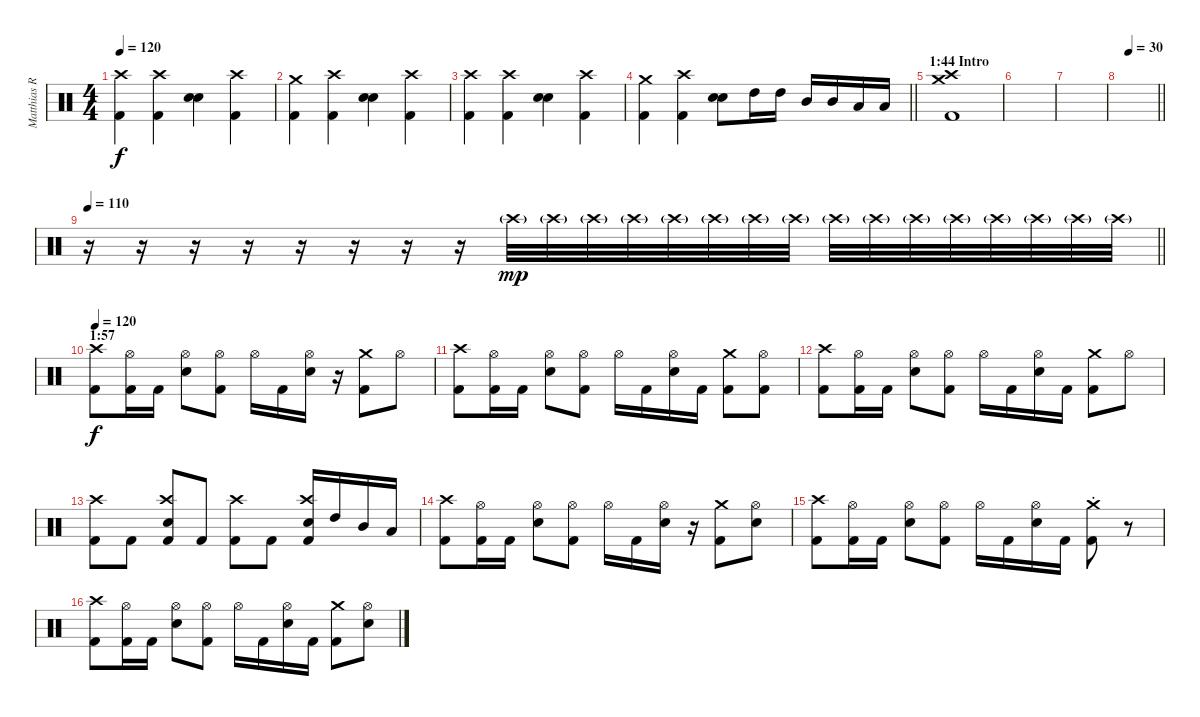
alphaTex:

\track ("Matthias R." "Matthias R") {instrument percussion}
\staff {score}
\articulation defaults
\ts (4 4)
\tempo 120
\clef neutral
\ks c
("Kick (hit) 2" "Crash high (hit)").4{dy f} ("Kick (hit) 2" "Crash high (hit)").4 ("Snare (hit) 2" "Electric Snare (hit)").4 ("Kick (hit) 2" "Crash high (hit)").4 |
("Kick (hit) 2" "Crash medium (hit)").4 ("Kick (hit) 2" "Crash high (hit)").4 ("Snare (hit) 2" "Electric Snare (hit)").4 ("Kick (hit) 2" "Crash high (hit)").4 |
("Kick (hit) 2" "Crash high (hit)").4 ("Kick (hit) 2" "Crash high (hit)").4 ("Snare (hit) 2" "Electric Snare (hit)").4 ("Kick (hit) 2" "Crash high (hit)").4 |
\barLineRight lightlight
("Kick (hit) 2" "Crash medium (hit)").4 ("Kick (hit) 2" "Crash high (hit)").4 ("Snare (hit) 2" "Snare (hit) 2").8{bu 60} "High Tom (hit)".16 "High Tom (hit)".16 "Mid Tom (hit)".16 "Mid Tom (hit)".16 "Low Tom (hit)".16 "Low Tom (hit)".16 |
\section ("" "1:44 Intro")
("Kick (hit) 2" "Crash high (hit)" "Crash medium (hit)").1 |
|
|
\tempo (30 0.25)
\barLineRight lightlight
|
\tempo 110
\barLineRight lightlight
r.16 r.16 r.16 r.16 r.16 r.16 r.16 r.16 "Crash high (hit)"{g}.32{dy mp volume 6} "Crash high (hit)"{g}.32 "Crash high (hit)"{g}.32{volume 7} "Crash high (hit)"{g}.32 "Crash high (hit)"{g}.32{volume 8} "Crash high (hit)"{g}.32 "Crash high (hit)"{g}.32{volume 9} "Crash high (hit)"{g}.32 "Crash high (hit)"{g}.32{volume 10} "Crash high (hit)"{g}.32 "Crash high (hit)"{g}.32{volume 11} "Crash high (hit)"{g}.32 "Crash high (hit)"{g}.32{volume 12} "Crash high (hit)"{g}.32 "Crash high (hit)"{g}.32{volume 13} "Crash high (hit)"{g}.32 |
\section ("" "1:57")
\tempo 120
("Kick (hit) 2" "Crash high (hit)").8{dy f volume 14} ("Kick (hit) 2" "Hi-Hat (open)").16 "Kick (hit) 2".16 ("Snare (hit) 2" "Hi-Hat (open)").8 ("Kick (hit) 2" "Hi-Hat (open)").8 "Hi-Hat (open)".16 "Kick (hit) 2".16 ("Snare (hit) 2" "Hi-Hat (open)").16 r.16 ("Kick (hit) 2" "Crash medium (hit)").8 "Hi-Hat (open)".8 |
("Kick (hit) 2" "Crash high (hit)").8 ("Kick (hit) 2" "Hi-Hat (open)").16 "Kick (hit) 2".16 ("Snare (hit) 2" "Hi-Hat (open)").8 ("Kick (hit) 2" "Hi-Hat (open)").8 "Hi-Hat (open)".16 "Kick (hit) 2".16 ("Snare (hit) 2" "Hi-Hat (open)").16 "Kick (hit) 2".16 ("Kick (hit) 2" "Crash medium (hit)").8 ("Kick (hit) 2" "Hi-Hat (open)").8 |
("Kick (hit) 2" "Crash high (hit)").8 ("Kick (hit) 2" "Hi-Hat (open)").16 "Kick (hit) 2".16 ("Snare (hit) 2" "Hi-Hat (open)").8 ("Kick (hit) 2" "Hi-Hat (open)").8 "Hi-Hat (open)".16 "Kick (hit) 2".16 ("Snare (hit) 2" "Hi-Hat (open)").16 "Kick (hit) 2".16 ("Kick (hit) 2" "Crash medium (hit)").8 "Hi-Hat (open)".8 |
("Kick (hit) 2" "Crash high (hit)").8 "Kick (hit) 2".8 ("Kick (hit) 2" "Snare (hit) 2" "Crash high (hit)").8 "Kick (hit) 2".8 ("Kick (hit) 2" "Crash high (hit)").8 "Kick (hit) 2".8 ("Kick (hit) 2" "Snare (hit) 2" "Crash high (hit)").16 "High Tom (hit)".16 "Mid Tom (hit)".16 "Low Tom (hit)".16 |
("Kick (hit) 2" "Crash high (hit)").8 ("Kick (hit) 2" "Hi-Hat (open)").16 "Kick (hit) 2".16 ("Snare (hit) 2" "Hi-Hat (open)").8 ("Kick (hit) 2" "Hi-Hat (open)").8 "Hi-Hat (open)".16 "Kick (hit) 2".16 ("Snare (hit) 2" "Hi-Hat (open)").16 r.16 ("Kick (hit) 2" "Crash medium (hit)").8 ("Snare (hit) 2" "Hi-Hat (open)").8 |
("Kick (hit) 2" "Crash high (hit)").8 ("Kick (hit) 2" "Hi-Hat (open)").16 "Kick (hit) 2".16 ("Snare (hit) 2" "Hi-Hat (open)").8 ("Kick (hit) 2" "Hi-Hat (open)").8 "Hi-Hat (open)".16 "Kick (hit) 2".16 ("Snare (hit) 2" "Hi-Hat (open)").16 "Kick (hit) 2".16 ("Kick (hit) 2"{st} "Crash medium (hit)"{st}).8 r.8 |
("Kick (hit) 2" "Crash high (hit)").8 ("Kick (hit) 2" "Hi-Hat (open)").16 "Kick (hit) 2".16 ("Snare (hit) 2" "Hi-Hat (open)").8 ("Kick (hit) 2" "Hi-Hat (open)").8 "Hi-Hat (open)".16 "Kick (hit) 2".16 ("Snare (hit) 2" "Hi-Hat (open)").16 "Kick (hit) 2".16 ("Kick (hit) 2" "Crash medium (hit)").8 ("Snare (hit) 2" "Hi-Hat (open)").8
